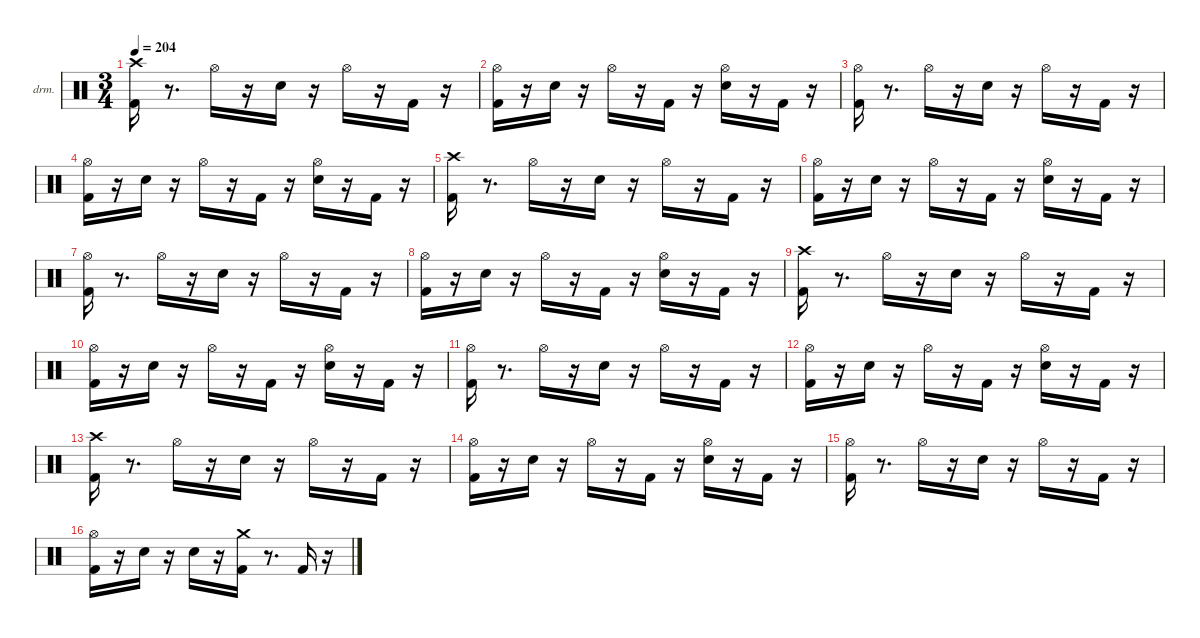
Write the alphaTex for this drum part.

\hideDynamics
\bracketExtendMode nobrackets
\firstSystemTrackNameOrientation horizontal
\otherSystemsTrackNameOrientation horizontal
\track ("drums" "drm.") {instrument percussion}
\staff {score}
\articulation defaults
\ts (3 4)
\tempo 204
\clef neutral
\ks aminor
("Kick (hit) 2" "Crash high (hit)"{acc #}).16{dy fff beam Down} r.8{d beam Down} "Hi-Hat (open)"{acc #}.16{dy mf beam Down} r.16{beam Down} "Snare (hit) 2".16{dy ff beam Down} r.16{beam Down} "Hi-Hat (open)"{acc #}.16{dy f beam Down} r.16{beam Down} "Kick (hit) 2".16{dy mf beam Up} r.16{beam Up} |
("Kick (hit) 2" "Hi-Hat (open)"{acc #}).16{dy fff beam Down} r.16{beam Down} "Snare (hit) 2".16{dy ff beam Down} r.16{beam Down} "Hi-Hat (open)"{acc #}.16{dy mp beam Down} r.16{beam Down} "Kick (hit) 2".16{dy ff beam Up} r.16{beam Up} ("Snare (hit) 2" "Hi-Hat (open)"{acc #}).16{dy f beam Down} r.16{beam Down} "Kick (hit) 2".16{dy mp beam Up} r.16{beam Up} |
("Kick (hit) 2" "Hi-Hat (open)"{acc #}).16{dy fff beam Down} r.8{d beam Down} "Hi-Hat (open)"{acc #}.16{dy mf beam Down} r.16{beam Down} "Snare (hit) 2".16{dy ff beam Down} r.16{beam Down} "Hi-Hat (open)"{acc #}.16{dy f beam Down} r.16{beam Down} "Kick (hit) 2".16{dy mf beam Up} r.16{beam Up} |
("Kick (hit) 2" "Hi-Hat (open)"{acc #}).16{dy fff beam Down} r.16{beam Down} "Snare (hit) 2".16{dy ff beam Down} r.16{beam Down} "Hi-Hat (open)"{acc #}.16{dy mf beam Down} r.16{beam Down} "Kick (hit) 2".16{dy ff beam Up} r.16{beam Up} ("Snare (hit) 2" "Hi-Hat (open)"{acc #}).16{dy f beam Down} r.16{beam Down} "Kick (hit) 2".16{dy mp beam Up} r.16{beam Up} |
("Kick (hit) 2" "Crash high (hit)"{acc #}).16{dy fff beam Down} r.8{d beam Down} "Hi-Hat (open)"{acc #}.16{dy mf beam Down} r.16{beam Down} "Snare (hit) 2".16{dy ff beam Down} r.16{beam Down} "Hi-Hat (open)"{acc #}.16{dy f beam Down} r.16{beam Down} "Kick (hit) 2".16{dy mf beam Up} r.16{beam Up} |
("Kick (hit) 2" "Hi-Hat (open)"{acc #}).16{dy fff beam Down} r.16{beam Down} "Snare (hit) 2".16{dy ff beam Down} r.16{beam Down} "Hi-Hat (open)"{acc #}.16{dy mp beam Down} r.16{beam Down} "Kick (hit) 2".16{dy ff beam Up} r.16{beam Up} ("Snare (hit) 2" "Hi-Hat (open)"{acc #}).16{dy f beam Down} r.16{beam Down} "Kick (hit) 2".16{dy mp beam Up} r.16{beam Up} |
("Kick (hit) 2" "Hi-Hat (open)"{acc #}).16{dy fff beam Down} r.8{d beam Down} "Hi-Hat (open)"{acc #}.16{dy mp beam Down} r.16{beam Down} "Snare (hit) 2".16{dy ff beam Down} r.16{beam Down} "Hi-Hat (open)"{acc #}.16{dy f beam Down} r.16{beam Down} "Kick (hit) 2".16{dy mf beam Up} r.16{beam Up} |
("Kick (hit) 2" "Hi-Hat (open)"{acc #}).16{dy fff beam Down} r.16{beam Down} "Snare (hit) 2".16{dy ff beam Down} r.16{beam Down} "Hi-Hat (open)"{acc #}.16{dy mf beam Down} r.16{beam Down} "Kick (hit) 2".16{dy ff beam Up} r.16{beam Up} ("Snare (hit) 2" "Hi-Hat (open)"{acc #}).16{dy f beam Down} r.16{beam Down} "Kick (hit) 2".16{dy mp beam Up} r.16{beam Up} |
("Kick (hit) 2" "Crash high (hit)"{acc #}).16{dy fff beam Down} r.8{d beam Down} "Hi-Hat (open)"{acc #}.16{dy mf beam Down} r.16{beam Down} "Snare (hit) 2".16{dy ff beam Down} r.16{beam Down} "Hi-Hat (open)"{acc #}.16{dy f beam Down} r.16{beam Down} "Kick (hit) 2".16{dy mf beam Up} r.16{beam Up} |
("Kick (hit) 2" "Hi-Hat (open)"{acc #}).16{dy fff beam Down} r.16{beam Down} "Snare (hit) 2".16{dy ff beam Down} r.16{beam Down} "Hi-Hat (open)"{acc #}.16{dy mp beam Down} r.16{beam Down} "Kick (hit) 2".16{dy ff beam Up} r.16{beam Up} ("Snare (hit) 2" "Hi-Hat (open)"{acc #}).16{dy f beam Down} r.16{beam Down} "Kick (hit) 2".16{dy mp beam Up} r.16{beam Up} |
("Kick (hit) 2" "Hi-Hat (open)"{acc #}).16{dy fff beam Down} r.8{d beam Down} "Hi-Hat (open)"{acc #}.16{dy mp beam Down} r.16{beam Down} "Snare (hit) 2".16{dy ff beam Down} r.16{beam Down} "Hi-Hat (open)"{acc #}.16{dy f beam Down} r.16{beam Down} "Kick (hit) 2".16{dy mf beam Up} r.16{beam Up} |
("Kick (hit) 2" "Hi-Hat (open)"{acc #}).16{dy fff beam Down} r.16{beam Down} "Snare (hit) 2".16{dy ff beam Down} r.16{beam Down} "Hi-Hat (open)"{acc #}.16{dy mf beam Down} r.16{beam Down} "Kick (hit) 2".16{dy ff beam Up} r.16{beam Up} ("Snare (hit) 2" "Hi-Hat (open)"{acc #}).16{dy f beam Down} r.16{beam Down} "Kick (hit) 2".16{dy mp beam Up} r.16{beam Up} |
("Kick (hit) 2" "Crash high (hit)"{acc #}).16{dy fff beam Down} r.8{d beam Down} "Hi-Hat (open)"{acc #}.16{dy mf beam Down} r.16{beam Down} "Snare (hit) 2".16{dy ff beam Down} r.16{beam Down} "Hi-Hat (open)"{acc #}.16{dy f beam Down} r.16{beam Down} "Kick (hit) 2".16{dy mf beam Up} r.16{beam Up} |
("Kick (hit) 2" "Hi-Hat (open)"{acc #}).16{dy fff beam Down} r.16{beam Down} "Snare (hit) 2".16{dy ff beam Down} r.16{beam Down} "Hi-Hat (open)"{acc #}.16{dy mp beam Down} r.16{beam Down} "Kick (hit) 2".16{dy ff beam Up} r.16{beam Up} ("Snare (hit) 2" "Hi-Hat (open)"{acc #}).16{dy f beam Down} r.16{beam Down} "Kick (hit) 2".16{dy mp beam Up} r.16{beam Up} |
("Kick (hit) 2" "Hi-Hat (open)"{acc #}).16{dy fff beam Down} r.8{d beam Down} "Hi-Hat (open)"{acc #}.16{dy mp beam Down} r.16{beam Down} "Snare (hit) 2".16{dy ff beam Down} r.16{beam Down} "Hi-Hat (open)"{acc #}.16{dy f beam Down} r.16{beam Down} "Kick (hit) 2".16{dy mf beam Up} r.16{beam Up} |
("Kick (hit) 2" "Hi-Hat (open)"{acc #}).16{dy fff beam Down} r.16{beam Down} "Snare (hit) 2".16{dy ff beam Down} r.16{beam Down} "Snare (hit) 2".16{dy p beam Down} r.16{beam Down} ("Kick (hit) 2" "Crash medium (hit)").16{dy ff beam Down} r.8{d beam Down} "Kick (hit) 2".16{dy mf beam Up} r.16{beam Up}
